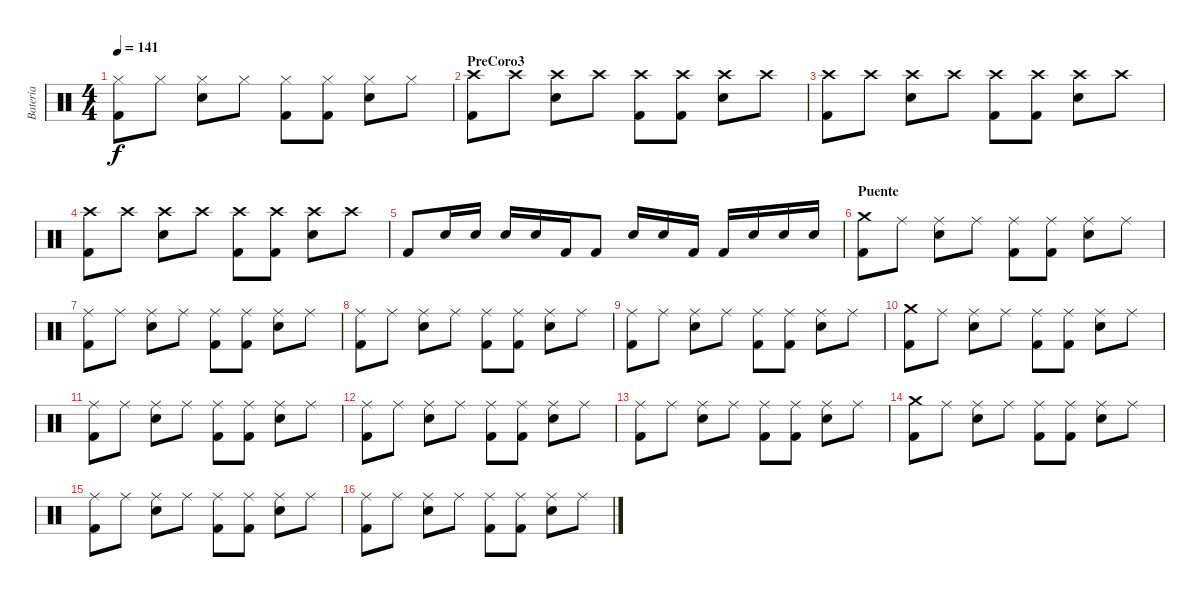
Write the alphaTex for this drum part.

\track ("Bateria" "Bateria") {instrument percussion}
\staff {score}
\articulation defaults
\ts (4 4)
\tempo 141
\clef neutral
\ks c
("Hi-Hat (closed)" "Kick (hit) 2").8{dy f} "Hi-Hat (closed)".8 ("Hi-Hat (closed)" "Electric Snare (hit)").8 "Hi-Hat (closed)".8 ("Hi-Hat (closed)" "Kick (hit) 2").8 ("Hi-Hat (closed)" "Kick (hit) 2").8 ("Hi-Hat (closed)" "Electric Snare (hit)").8 "Hi-Hat (closed)".8 |
\section ("" "PreCoro3")
("Crash high (hit)" "Kick (hit) 2").8 "Crash high (hit)".8 ("Crash high (hit)" "Electric Snare (hit)").8 "Crash high (hit)".8 ("Crash high (hit)" "Kick (hit) 2").8 ("Crash high (hit)" "Kick (hit) 2").8 ("Crash high (hit)" "Electric Snare (hit)").8 "Crash high (hit)".8 |
("Crash high (hit)" "Kick (hit) 2").8 "Crash high (hit)".8 ("Crash high (hit)" "Electric Snare (hit)").8 "Crash high (hit)".8 ("Crash high (hit)" "Kick (hit) 2").8 ("Crash high (hit)" "Kick (hit) 2").8 ("Crash high (hit)" "Electric Snare (hit)").8 "Crash high (hit)".8 |
("Crash high (hit)" "Kick (hit) 2").8 "Crash high (hit)".8 ("Crash high (hit)" "Electric Snare (hit)").8 "Crash high (hit)".8 ("Crash high (hit)" "Kick (hit) 2").8 ("Crash high (hit)" "Kick (hit) 2").8 ("Crash high (hit)" "Electric Snare (hit)").8 "Crash high (hit)".8 |
"Kick (hit) 2".8 "Electric Snare (hit)".16 "Electric Snare (hit)".16 "Electric Snare (hit)".16 "Electric Snare (hit)".16 "Kick (hit) 2".16 "Kick (hit) 2".8 "Electric Snare (hit)".16 "Electric Snare (hit)".16 "Kick (hit) 2".16 "Kick (hit) 2".16 "Electric Snare (hit)".16 "Electric Snare (hit)".16 "Electric Snare (hit)".16 |
\section ("" "Puente")
("Crash medium (hit)" "Kick (hit) 2").8 "Ride (middle)".8 ("Ride (middle)" "Electric Snare (hit)").8 "Ride (middle)".8 ("Ride (middle)" "Kick (hit) 2").8 ("Ride (middle)" "Kick (hit) 2").8 ("Ride (middle)" "Electric Snare (hit)").8 "Ride (middle)".8 |
("Ride (middle)" "Kick (hit) 2").8 "Ride (middle)".8 ("Ride (middle)" "Electric Snare (hit)").8 "Ride (middle)".8 ("Ride (middle)" "Kick (hit) 2").8 ("Ride (middle)" "Kick (hit) 2").8 ("Ride (middle)" "Electric Snare (hit)").8 "Ride (middle)".8 |
("Ride (middle)" "Kick (hit) 2").8 "Ride (middle)".8 ("Ride (middle)" "Electric Snare (hit)").8 "Ride (middle)".8 ("Ride (middle)" "Kick (hit) 2").8 ("Ride (middle)" "Kick (hit) 2").8 ("Ride (middle)" "Electric Snare (hit)").8 "Ride (middle)".8 |
("Ride (middle)" "Kick (hit) 2").8 "Ride (middle)".8 ("Ride (middle)" "Electric Snare (hit)").8 "Ride (middle)".8 ("Ride (middle)" "Kick (hit) 2").8 ("Ride (middle)" "Kick (hit) 2").8 ("Ride (middle)" "Electric Snare (hit)").8 "Ride (middle)".8 |
("Crash medium (hit)" "Kick (hit) 2").8 "Ride (middle)".8 ("Ride (middle)" "Electric Snare (hit)").8 "Ride (middle)".8 ("Ride (middle)" "Kick (hit) 2").8 ("Ride (middle)" "Kick (hit) 2").8 ("Ride (middle)" "Electric Snare (hit)").8 "Ride (middle)".8 |
("Ride (middle)" "Kick (hit) 2").8 "Ride (middle)".8 ("Ride (middle)" "Electric Snare (hit)").8 "Ride (middle)".8 ("Ride (middle)" "Kick (hit) 2").8 ("Ride (middle)" "Kick (hit) 2").8 ("Ride (middle)" "Electric Snare (hit)").8 "Ride (middle)".8 |
("Ride (middle)" "Kick (hit) 2").8 "Ride (middle)".8 ("Ride (middle)" "Electric Snare (hit)").8 "Ride (middle)".8 ("Ride (middle)" "Kick (hit) 2").8 ("Ride (middle)" "Kick (hit) 2").8 ("Ride (middle)" "Electric Snare (hit)").8 "Ride (middle)".8 |
("Ride (middle)" "Kick (hit) 2").8 "Ride (middle)".8 ("Ride (middle)" "Electric Snare (hit)").8 "Ride (middle)".8 ("Ride (middle)" "Kick (hit) 2").8 ("Ride (middle)" "Kick (hit) 2").8 ("Ride (middle)" "Electric Snare (hit)").8 "Ride (middle)".8 |
("Crash medium (hit)" "Kick (hit) 2").8 "Ride (middle)".8 ("Ride (middle)" "Electric Snare (hit)").8 "Ride (middle)".8 ("Ride (middle)" "Kick (hit) 2").8 ("Ride (middle)" "Kick (hit) 2").8 ("Ride (middle)" "Electric Snare (hit)").8 "Ride (middle)".8 |
("Ride (middle)" "Kick (hit) 2").8 "Ride (middle)".8 ("Ride (middle)" "Electric Snare (hit)").8 "Ride (middle)".8 ("Ride (middle)" "Kick (hit) 2").8 ("Ride (middle)" "Kick (hit) 2").8 ("Ride (middle)" "Electric Snare (hit)").8 "Ride (middle)".8 |
("Ride (middle)" "Kick (hit) 2").8 "Ride (middle)".8 ("Ride (middle)" "Electric Snare (hit)").8 "Ride (middle)".8 ("Ride (middle)" "Kick (hit) 2").8 ("Ride (middle)" "Kick (hit) 2").8 ("Ride (middle)" "Electric Snare (hit)").8 "Ride (middle)".8
